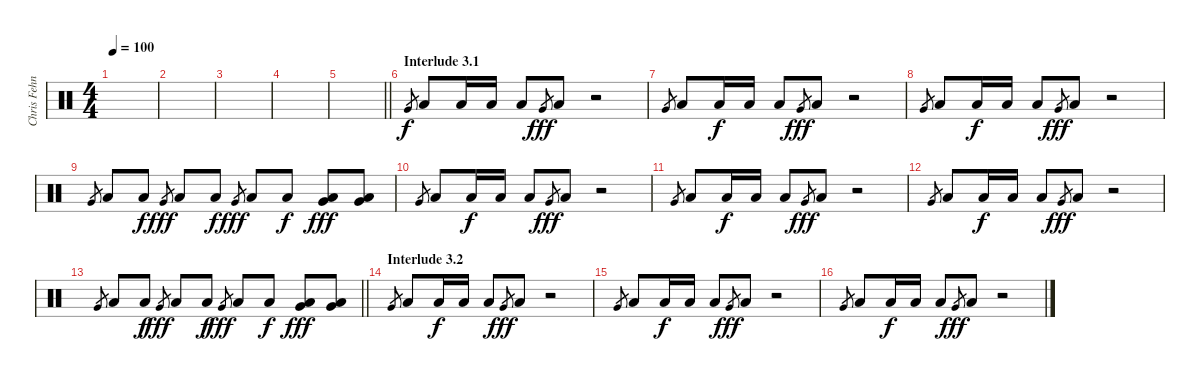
\track ("Chris Fehn" "Chris Fehn") {instrument percussion}
\staff {score}
\articulation defaults
\ts (4 4)
\tempo 100
\clef neutral
\ks c
|
|
|
|
\barLineRight lightlight
|
\section ("" "Interlude 3.1")
"Very Low Tom (hit)".8{gr} "Low Floor Tom (hit)".8 "Low Floor Tom (hit)".16{dy f} "Low Floor Tom (hit)".16 "Low Floor Tom (hit)".8 "Very Low Tom (hit)".8{gr dy fff} "Low Floor Tom (hit)".8 r.2 |
"Very Low Tom (hit)".8{gr} "Low Floor Tom (hit)".8 "Low Floor Tom (hit)".16{dy f} "Low Floor Tom (hit)".16 "Low Floor Tom (hit)".8 "Very Low Tom (hit)".8{gr dy fff} "Low Floor Tom (hit)".8 r.2 |
"Very Low Tom (hit)".8{gr} "Low Floor Tom (hit)".8 "Low Floor Tom (hit)".16{dy f} "Low Floor Tom (hit)".16 "Low Floor Tom (hit)".8 "Very Low Tom (hit)".8{gr dy fff} "Low Floor Tom (hit)".8 r.2 |
"Very Low Tom (hit)".8{gr} "Low Floor Tom (hit)".8 "Low Floor Tom (hit)".8{dy f} "Very Low Tom (hit)".8{gr dy fff} "Low Floor Tom (hit)".8 "Low Floor Tom (hit)".8{dy f} "Very Low Tom (hit)".8{gr dy fff} "Low Floor Tom (hit)".8 "Low Floor Tom (hit)".8{dy f} ("Very Low Tom (hit)" "Low Floor Tom (hit)").8{dy fff} ("Very Low Tom (hit)" "Low Floor Tom (hit)").8 |
"Very Low Tom (hit)".8{gr} "Low Floor Tom (hit)".8 "Low Floor Tom (hit)".16{dy f} "Low Floor Tom (hit)".16 "Low Floor Tom (hit)".8 "Very Low Tom (hit)".8{gr dy fff} "Low Floor Tom (hit)".8 r.2 |
"Very Low Tom (hit)".8{gr} "Low Floor Tom (hit)".8 "Low Floor Tom (hit)".16{dy f} "Low Floor Tom (hit)".16 "Low Floor Tom (hit)".8 "Very Low Tom (hit)".8{gr dy fff} "Low Floor Tom (hit)".8 r.2 |
"Very Low Tom (hit)".8{gr} "Low Floor Tom (hit)".8 "Low Floor Tom (hit)".16{dy f} "Low Floor Tom (hit)".16 "Low Floor Tom (hit)".8 "Very Low Tom (hit)".8{gr dy fff} "Low Floor Tom (hit)".8 r.2 |
\barLineRight lightlight "Very Low Tom (hit)".8{gr} "Low Floor Tom (hit)".8 "Low Floor Tom (hit)".8{dy f} "Very Low Tom (hit)".8{gr dy fff} "Low Floor Tom (hit)".8 "Low Floor Tom (hit)".8{dy f} "Very Low Tom (hit)".8{gr dy fff} "Low Floor Tom (hit)".8 "Low Floor Tom (hit)".8{dy f}
("Very Low Tom (hit)" "Low Floor Tom (hit)").8{dy fff} ("Very Low Tom (hit)" "Low Floor Tom (hit)").8 |
\section ("" "Interlude 3.2")
"Very Low Tom (hit)".8{gr} "Low Floor Tom (hit)".8 "Low Floor Tom (hit)".16{dy f} "Low Floor Tom (hit)".16 "Low Floor Tom (hit)".8 "Very Low Tom (hit)".8{gr dy fff} "Low Floor Tom (hit)".8 r.2 |
"Very Low Tom (hit)".8{gr} "Low Floor Tom (hit)".8 "Low Floor Tom (hit)".16{dy f} "Low Floor Tom (hit)".16 "Low Floor Tom (hit)".8 "Very Low Tom (hit)".8{gr dy fff} "Low Floor Tom (hit)".8 r.2 |
"Very Low Tom (hit)".8{gr} "Low Floor Tom (hit)".8 "Low Floor Tom (hit)".16{dy f} "Low Floor Tom (hit)".16 "Low Floor Tom (hit)".8 "Very Low Tom (hit)".8{gr dy fff} "Low Floor Tom (hit)".8 r.2
